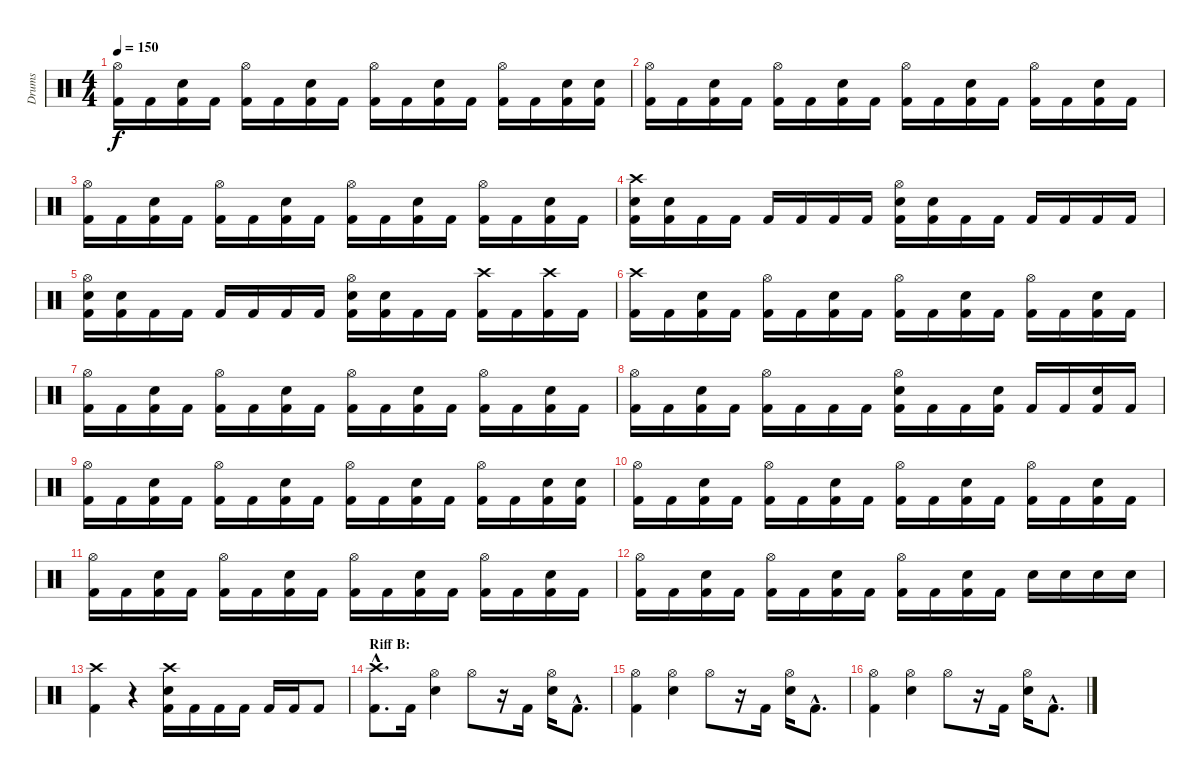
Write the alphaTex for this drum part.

\track ("Drums" "Drums") {instrument percussion}
\staff {score}
\articulation defaults
\ts (4 4)
\tempo 150
\clef neutral
\ks c
("Hi-Hat (open)" "Kick (hit) 2").16{dy f} "Kick (hit) 2".16 ("Electric Snare (hit)" "Kick (hit) 2").16 "Kick (hit) 2".16 ("Hi-Hat (open)" "Kick (hit) 2").16 "Kick (hit) 2".16 ("Electric Snare (hit)" "Kick (hit) 2").16 "Kick (hit) 2".16 ("Hi-Hat (open)" "Kick (hit) 2").16 "Kick (hit) 2".16 ("Electric Snare (hit)" "Kick (hit) 2").16 "Kick (hit) 2".16 ("Hi-Hat (open)" "Kick (hit) 2").16 "Kick (hit) 2".16 ("Electric Snare (hit)" "Kick (hit) 2").16 ("Electric Snare (hit)" "Kick (hit) 2").16 |
("Hi-Hat (open)" "Kick (hit) 2").16 "Kick (hit) 2".16 ("Electric Snare (hit)" "Kick (hit) 2").16 "Kick (hit) 2".16 ("Hi-Hat (open)" "Kick (hit) 2").16 "Kick (hit) 2".16 ("Electric Snare (hit)" "Kick (hit) 2").16 "Kick (hit) 2".16 ("Hi-Hat (open)" "Kick (hit) 2").16 "Kick (hit) 2".16 ("Electric Snare (hit)" "Kick (hit) 2").16 "Kick (hit) 2".16 ("Hi-Hat (open)" "Kick (hit) 2").16 "Kick (hit) 2".16 ("Electric Snare (hit)" "Kick (hit) 2").16 "Kick (hit) 2".16 |
("Hi-Hat (open)" "Kick (hit) 2").16 "Kick (hit) 2".16 ("Electric Snare (hit)" "Kick (hit) 2").16 "Kick (hit) 2".16 ("Hi-Hat (open)" "Kick (hit) 2").16 "Kick (hit) 2".16 ("Electric Snare (hit)" "Kick (hit) 2").16 "Kick (hit) 2".16 ("Hi-Hat (open)" "Kick (hit) 2").16 "Kick (hit) 2".16 ("Electric Snare (hit)" "Kick (hit) 2").16 "Kick (hit) 2".16 ("Hi-Hat (open)" "Kick (hit) 2").16 "Kick (hit) 2".16 ("Electric Snare (hit)" "Kick (hit) 2").16 "Kick (hit) 2".16 |
("Crash high (hit)" "Electric Snare (hit)" "Kick (hit) 2").16 ("Electric Snare (hit)" "Kick (hit) 2").16 "Kick (hit) 2".16 "Kick (hit) 2".16 "Kick (hit) 2".16 "Kick (hit) 2".16 "Kick (hit) 2".16 "Kick (hit) 2".16 ("Hi-Hat (open)" "Electric Snare (hit)" "Kick (hit) 2").16 ("Electric Snare (hit)" "Kick (hit) 2").16 "Kick (hit) 2".16 "Kick (hit) 2".16 "Kick (hit) 2".16 "Kick (hit) 2".16 "Kick (hit) 2".16 "Kick (hit) 2".16 |
("Hi-Hat (open)" "Electric Snare (hit)" "Kick (hit) 2").16 ("Electric Snare (hit)" "Kick (hit) 2").16 "Kick (hit) 2".16 "Kick (hit) 2".16 "Kick (hit) 2".16 "Kick (hit) 2".16 "Kick (hit) 2".16 "Kick (hit) 2".16 ("Hi-Hat (open)" "Electric Snare (hit)" "Kick (hit) 2").16 ("Electric Snare (hit)" "Kick (hit) 2").16 "Kick (hit) 2".16 "Kick (hit) 2".16 ("Crash high (hit)" "Kick (hit) 2").16 "Kick (hit) 2".16 ("Crash high (hit)" "Kick (hit) 2").16 "Kick (hit) 2".16 |
("Crash high (hit)" "Kick (hit) 2").16 "Kick (hit) 2".16 ("Electric Snare (hit)" "Kick (hit) 2").16 "Kick (hit) 2".16 ("Hi-Hat (open)" "Kick (hit) 2").16 "Kick (hit) 2".16 ("Electric Snare (hit)" "Kick (hit) 2").16 "Kick (hit) 2".16 ("Hi-Hat (open)" "Kick (hit) 2").16 "Kick (hit) 2".16 ("Electric Snare (hit)" "Kick (hit) 2").16 "Kick (hit) 2".16 ("Hi-Hat (open)" "Kick (hit) 2").16 "Kick (hit) 2".16 ("Electric Snare (hit)" "Kick (hit) 2").16 "Kick (hit) 2".16 |
("Hi-Hat (open)" "Kick (hit) 2").16 "Kick (hit) 2".16 ("Electric Snare (hit)" "Kick (hit) 2").16 "Kick (hit) 2".16 ("Hi-Hat (open)" "Kick (hit) 2").16 "Kick (hit) 2".16 ("Electric Snare (hit)" "Kick (hit) 2").16 "Kick (hit) 2".16 ("Hi-Hat (open)" "Kick (hit) 2").16 "Kick (hit) 2".16 ("Electric Snare (hit)" "Kick (hit) 2").16 "Kick (hit) 2".16 ("Hi-Hat (open)" "Kick (hit) 2").16 "Kick (hit) 2".16 ("Electric Snare (hit)" "Kick (hit) 2").16 "Kick (hit) 2".16 |
("Hi-Hat (open)" "Kick (hit) 2").16 "Kick (hit) 2".16 ("Electric Snare (hit)" "Kick (hit) 2").16 "Kick (hit) 2".16 ("Hi-Hat (open)" "Kick (hit) 2").16 "Kick (hit) 2".16 "Kick (hit) 2".16 "Kick (hit) 2".16 ("Hi-Hat (open)" "Electric Snare (hit)" "Kick (hit) 2").16 "Kick (hit) 2".16 "Kick (hit) 2".16 ("Electric Snare (hit)" "Kick (hit) 2").16 "Kick (hit) 2".16 "Kick (hit) 2".16 ("Electric Snare (hit)" "Kick (hit) 2").16 "Kick (hit) 2".16 |
("Hi-Hat (open)" "Kick (hit) 2").16 "Kick (hit) 2".16 ("Electric Snare (hit)" "Kick (hit) 2").16 "Kick (hit) 2".16 ("Hi-Hat (open)" "Kick (hit) 2").16 "Kick (hit) 2".16 ("Electric Snare (hit)" "Kick (hit) 2").16 "Kick (hit) 2".16 ("Hi-Hat (open)" "Kick (hit) 2").16 "Kick (hit) 2".16 ("Electric Snare (hit)" "Kick (hit) 2").16 "Kick (hit) 2".16 ("Hi-Hat (open)" "Kick (hit) 2").16 "Kick (hit) 2".16 ("Electric Snare (hit)" "Kick (hit) 2").16 ("Electric Snare (hit)" "Kick (hit) 2").16 |
("Hi-Hat (open)" "Kick (hit) 2").16 "Kick (hit) 2".16 ("Electric Snare (hit)" "Kick (hit) 2").16 "Kick (hit) 2".16 ("Hi-Hat (open)" "Kick (hit) 2").16 "Kick (hit) 2".16 ("Electric Snare (hit)" "Kick (hit) 2").16 "Kick (hit) 2".16 ("Hi-Hat (open)" "Kick (hit) 2").16 "Kick (hit) 2".16 ("Electric Snare (hit)" "Kick (hit) 2").16 "Kick (hit) 2".16 ("Hi-Hat (open)" "Kick (hit) 2").16 "Kick (hit) 2".16 ("Electric Snare (hit)" "Kick (hit) 2").16 "Kick (hit) 2".16 |
("Hi-Hat (open)" "Kick (hit) 2").16 "Kick (hit) 2".16 ("Electric Snare (hit)" "Kick (hit) 2").16 "Kick (hit) 2".16 ("Hi-Hat (open)" "Kick (hit) 2").16 "Kick (hit) 2".16 ("Electric Snare (hit)" "Kick (hit) 2").16 "Kick (hit) 2".16 ("Hi-Hat (open)" "Kick (hit) 2").16 "Kick (hit) 2".16 ("Electric Snare (hit)" "Kick (hit) 2").16 "Kick (hit) 2".16 ("Hi-Hat (open)" "Kick (hit) 2").16 "Kick (hit) 2".16 ("Electric Snare (hit)" "Kick (hit) 2").16 "Kick (hit) 2".16 |
("Hi-Hat (open)" "Kick (hit) 2").16 "Kick (hit) 2".16 ("Electric Snare (hit)" "Kick (hit) 2").16 "Kick (hit) 2".16 ("Hi-Hat (open)" "Kick (hit) 2").16 "Kick (hit) 2".16 ("Electric Snare (hit)" "Kick (hit) 2").16 "Kick (hit) 2".16 ("Hi-Hat (open)" "Kick (hit) 2").16 "Kick (hit) 2".16 ("Electric Snare (hit)" "Kick (hit) 2").16 "Kick (hit) 2".16 "Electric Snare (hit)".16 "Electric Snare (hit)".16 "Electric Snare (hit)".16 "Electric Snare (hit)".16 |
("Crash high (hit)" "Kick (hit) 2").4 r.4 ("Crash high (hit)" "Electric Snare (hit)" "Kick (hit) 2").16 "Kick (hit) 2".16 "Kick (hit) 2".16 "Kick (hit) 2".16 "Kick (hit) 2".16 "Kick (hit) 2".16 "Kick (hit) 2".8 |
\section ("" "Riff B:")
("Crash high (hit)"{hac} "Kick (hit) 2"{hac}).8{d} "Kick (hit) 2".16 ("Hi-Hat (open)" "Electric Snare (hit)").4 "Hi-Hat (open)".8 r.16 "Kick (hit) 2".16 ("Hi-Hat (open)" "Electric Snare (hit)").16 "Kick (hit) 2"{hac}.8{d} |
("Hi-Hat (open)" "Kick (hit) 2").4 ("Hi-Hat (open)" "Electric Snare (hit)").4 "Hi-Hat (open)".8 r.16 "Kick (hit) 2".16 ("Hi-Hat (open)" "Electric Snare (hit)").16 "Kick (hit) 2"{hac}.8{d} |
("Hi-Hat (open)" "Kick (hit) 2").4 ("Hi-Hat (open)" "Electric Snare (hit)").4 "Hi-Hat (open)".8 r.16 "Kick (hit) 2".16 ("Hi-Hat (open)" "Electric Snare (hit)").16 "Kick (hit) 2"{hac}.8{d}
